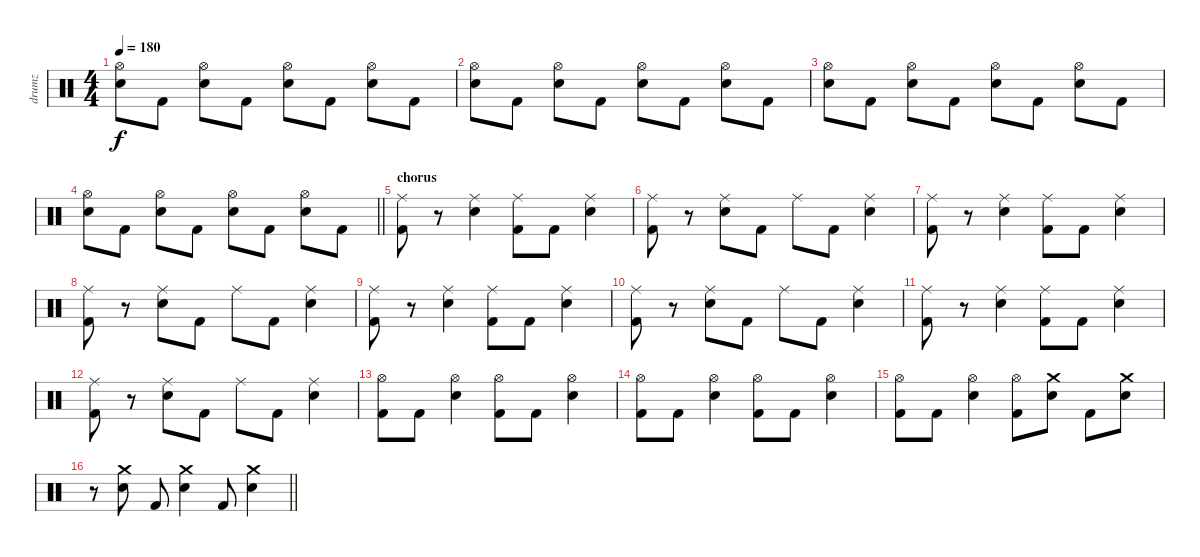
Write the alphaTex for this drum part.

\track ("drumz" "drumz") {instrument percussion}
\staff {score}
\articulation defaults
\ts (4 4)
\tempo 180
\clef neutral
\ks c
("Hi-Hat (open)" "Electric Snare (hit)").8{dy f} "Kick (hit) 2".8 ("Hi-Hat (open)" "Electric Snare (hit)").8 "Kick (hit) 2".8 ("Hi-Hat (open)" "Electric Snare (hit)").8 "Kick (hit) 2".8 ("Hi-Hat (open)" "Electric Snare (hit)").8 "Kick (hit) 2".8 |
("Hi-Hat (open)" "Electric Snare (hit)").8 "Kick (hit) 2".8 ("Hi-Hat (open)" "Electric Snare (hit)").8 "Kick (hit) 2".8 ("Hi-Hat (open)" "Electric Snare (hit)").8 "Kick (hit) 2".8 ("Hi-Hat (open)" "Electric Snare (hit)").8 "Kick (hit) 2".8 |
("Hi-Hat (open)" "Electric Snare (hit)").8 "Kick (hit) 2".8 ("Hi-Hat (open)" "Electric Snare (hit)").8 "Kick (hit) 2".8 ("Hi-Hat (open)" "Electric Snare (hit)").8 "Kick (hit) 2".8 ("Hi-Hat (open)" "Electric Snare (hit)").8 "Kick (hit) 2".8 |
\barLineRight lightlight
("Hi-Hat (open)" "Electric Snare (hit)").8 "Kick (hit) 2".8 ("Hi-Hat (open)" "Electric Snare (hit)").8 "Kick (hit) 2".8 ("Hi-Hat (open)" "Electric Snare (hit)").8 "Kick (hit) 2".8 ("Hi-Hat (open)" "Electric Snare (hit)").8 "Kick (hit) 2".8 |
\section ("" "chorus")
("Ride (middle)" "Kick (hit) 2").8 r.8 ("Ride (middle)" "Electric Snare (hit)").4 ("Ride (middle)" "Kick (hit) 2").8 "Kick (hit) 2".8 ("Ride (middle)" "Electric Snare (hit)").4 |
("Ride (middle)" "Kick (hit) 2").8 r.8 ("Ride (middle)" "Electric Snare (hit)").8 "Kick (hit) 2".8 "Ride (middle)".8 "Kick (hit) 2".8 ("Ride (middle)" "Electric Snare (hit)").4 |
("Ride (middle)" "Kick (hit) 2").8 r.8 ("Ride (middle)" "Electric Snare (hit)").4 ("Ride (middle)" "Kick (hit) 2").8 "Kick (hit) 2".8 ("Ride (middle)" "Electric Snare (hit)").4 |
("Ride (middle)" "Kick (hit) 2").8 r.8 ("Ride (middle)" "Electric Snare (hit)").8 "Kick (hit) 2".8 "Ride (middle)".8 "Kick (hit) 2".8 ("Ride (middle)" "Electric Snare (hit)").4 |
("Ride (middle)" "Kick (hit) 2").8 r.8 ("Ride (middle)" "Electric Snare (hit)").4 ("Ride (middle)" "Kick (hit) 2").8 "Kick (hit) 2".8 ("Ride (middle)" "Electric Snare (hit)").4 |
("Ride (middle)" "Kick (hit) 2").8 r.8 ("Ride (middle)" "Electric Snare (hit)").8 "Kick (hit) 2".8 "Ride (middle)".8 "Kick (hit) 2".8 ("Ride (middle)" "Electric Snare (hit)").4 |
("Ride (middle)" "Kick (hit) 2").8 r.8 ("Ride (middle)" "Electric Snare (hit)").4 ("Ride (middle)" "Kick (hit) 2").8 "Kick (hit) 2".8 ("Ride (middle)" "Electric Snare (hit)").4 |
("Ride (middle)" "Kick (hit) 2").8 r.8 ("Ride (middle)" "Electric Snare (hit)").8 "Kick (hit) 2".8 "Ride (middle)".8 "Kick (hit) 2".8 ("Ride (middle)" "Electric Snare (hit)").4 |
("Hi-Hat (open)" "Kick (hit) 2").8 "Kick (hit) 2".8 ("Hi-Hat (open)" "Electric Snare (hit)").4 ("Hi-Hat (open)" "Kick (hit) 2").8 "Kick (hit) 2".8 ("Hi-Hat (open)" "Electric Snare (hit)").4 |
("Hi-Hat (open)" "Kick (hit) 2").8 "Kick (hit) 2".8 ("Hi-Hat (open)" "Electric Snare (hit)").4 ("Hi-Hat (open)" "Kick (hit) 2").8 "Kick (hit) 2".8 ("Hi-Hat (open)" "Electric Snare (hit)").4 |
("Hi-Hat (open)" "Kick (hit) 2").8 "Kick (hit) 2".8 ("Hi-Hat (open)" "Electric Snare (hit)").4 ("Hi-Hat (open)" "Kick (hit) 2").8 ("Crash medium (hit)" "Electric Snare (hit)").8 "Kick (hit) 2".8 ("Crash medium (hit)" "Electric Snare (hit)").8 |
\barLineRight lightlight
r.8 ("Crash medium (hit)" "Electric Snare (hit)").8 "Kick (hit) 2".8 ("Crash medium (hit)" "Electric Snare (hit)").4 "Kick (hit) 2".8 ("Crash medium (hit)" "Electric Snare (hit)").4
